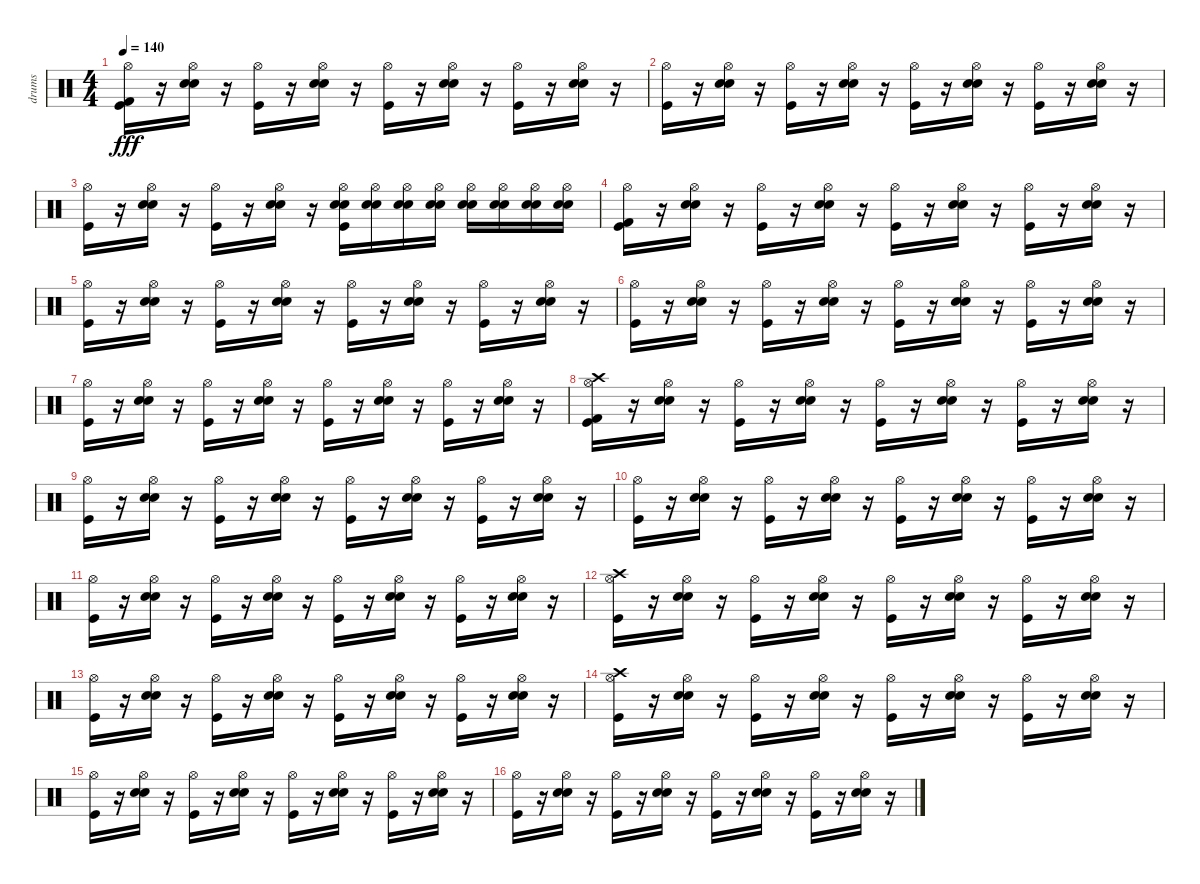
\track ("drums" "drums") {instrument percussion}
\staff {score}
\articulation defaults
\ts (4 4)
\tempo 140
\clef neutral
\ks c
("Kick (hit) 2" "Kick (hit)" "Hi-Hat (open)").16{dy fff} r.16 ("Hi-Hat (open)" "Snare (hit) 2" "Electric Snare (hit)").16 r.16 ("Hi-Hat (open)" "Kick (hit)").16 r.16 ("Hi-Hat (open)" "Snare (hit) 2" "Electric Snare (hit)").16 r.16 ("Hi-Hat (open)" "Kick (hit)").16 r.16 ("Hi-Hat (open)" "Snare (hit) 2" "Electric Snare (hit)").16 r.16 ("Hi-Hat (open)" "Kick (hit)").16 r.16 ("Hi-Hat (open)" "Snare (hit) 2" "Electric Snare (hit)").16 r.16 |
("Hi-Hat (open)" "Kick (hit)").16 r.16 ("Hi-Hat (open)" "Snare (hit) 2" "Electric Snare (hit)").16 r.16 ("Hi-Hat (open)" "Kick (hit)").16 r.16 ("Hi-Hat (open)" "Snare (hit) 2" "Electric Snare (hit)").16 r.16 ("Hi-Hat (open)" "Kick (hit)").16 r.16 ("Hi-Hat (open)" "Snare (hit) 2" "Electric Snare (hit)").16 r.16 ("Hi-Hat (open)" "Kick (hit)").16 r.16 ("Hi-Hat (open)" "Snare (hit) 2" "Electric Snare (hit)").16 r.16 |
("Kick (hit)" "Hi-Hat (open)").16 r.16 ("Hi-Hat (open)" "Snare (hit) 2" "Electric Snare (hit)").16 r.16 ("Hi-Hat (open)" "Kick (hit)").16 r.16 ("Hi-Hat (open)" "Snare (hit) 2" "Electric Snare (hit)").16 r.16 ("Electric Snare (hit)" "Hi-Hat (open)" "Snare (hit) 2" "Kick (hit)").16 ("Snare (hit) 2" "Hi-Hat (open)" "Electric Snare (hit)").16 ("Snare (hit) 2" "Hi-Hat (open)" "Electric Snare (hit)").16 ("Snare (hit) 2" "Hi-Hat (open)" "Electric Snare (hit)").16 ("Snare (hit) 2" "Hi-Hat (open)" "Electric Snare (hit)").16 ("Snare (hit) 2" "Hi-Hat (open)" "Electric Snare (hit)").16 ("Snare (hit) 2" "Hi-Hat (open)" "Electric Snare (hit)").16 ("Snare (hit) 2" "Hi-Hat (open)" "Electric Snare (hit)").16 |
("Hi-Hat (open)" "Kick (hit)" "Kick (hit) 2").16 r.16 ("Hi-Hat (open)" "Snare (hit) 2" "Electric Snare (hit)").16 r.16 ("Hi-Hat (open)" "Kick (hit)").16 r.16 ("Hi-Hat (open)" "Snare (hit) 2" "Electric Snare (hit)").16 r.16 ("Hi-Hat (open)" "Kick (hit)").16 r.16 ("Hi-Hat (open)" "Snare (hit) 2" "Electric Snare (hit)").16 r.16 ("Hi-Hat (open)" "Kick (hit)").16 r.16 ("Hi-Hat (open)" "Snare (hit) 2" "Electric Snare (hit)").16 r.16 |
("Hi-Hat (open)" "Kick (hit)").16 r.16 ("Hi-Hat (open)" "Snare (hit) 2" "Electric Snare (hit)").16 r.16 ("Hi-Hat (open)" "Kick (hit)").16 r.16 ("Hi-Hat (open)" "Snare (hit) 2" "Electric Snare (hit)").16 r.16 ("Hi-Hat (open)" "Kick (hit)").16 r.16 ("Hi-Hat (open)" "Snare (hit) 2" "Electric Snare (hit)").16 r.16 ("Hi-Hat (open)" "Kick (hit)").16 r.16 ("Hi-Hat (open)" "Snare (hit) 2" "Electric Snare (hit)").16 r.16 |
("Kick (hit)" "Hi-Hat (open)").16 r.16 ("Hi-Hat (open)" "Snare (hit) 2" "Electric Snare (hit)").16 r.16 ("Hi-Hat (open)" "Kick (hit)").16 r.16 ("Hi-Hat (open)" "Snare (hit) 2" "Electric Snare (hit)").16 r.16 ("Hi-Hat (open)" "Kick (hit)").16 r.16 ("Hi-Hat (open)" "Snare (hit) 2" "Electric Snare (hit)").16 r.16 ("Hi-Hat (open)" "Kick (hit)").16 r.16 ("Hi-Hat (open)" "Snare (hit) 2" "Electric Snare (hit)").16 r.16 |
("Kick (hit)" "Hi-Hat (open)").16 r.16 ("Hi-Hat (open)" "Snare (hit) 2" "Electric Snare (hit)").16 r.16 ("Hi-Hat (open)" "Kick (hit)").16 r.16 ("Hi-Hat (open)" "Snare (hit) 2" "Electric Snare (hit)").16 r.16 ("Hi-Hat (open)" "Kick (hit)").16 r.16 ("Hi-Hat (open)" "Snare (hit) 2" "Electric Snare (hit)").16 r.16 ("Hi-Hat (open)" "Kick (hit)").16 r.16 ("Hi-Hat (open)" "Snare (hit) 2" "Electric Snare (hit)").16 r.16 |
("Kick (hit)" "Hi-Hat (open)" "Crash high (hit)" "Kick (hit) 2").16 r.16 ("Hi-Hat (open)" "Snare (hit) 2" "Electric Snare (hit)").16 r.16 ("Hi-Hat (open)" "Kick (hit)").16 r.16 ("Hi-Hat (open)" "Snare (hit) 2" "Electric Snare (hit)").16 r.16 ("Hi-Hat (open)" "Kick (hit)").16 r.16 ("Hi-Hat (open)" "Snare (hit) 2" "Electric Snare (hit)").16 r.16 ("Hi-Hat (open)" "Kick (hit)").16 r.16 ("Hi-Hat (open)" "Snare (hit) 2" "Electric Snare (hit)").16 r.16 |
("Kick (hit)" "Hi-Hat (open)").16 r.16 ("Hi-Hat (open)" "Snare (hit) 2" "Electric Snare (hit)").16 r.16 ("Hi-Hat (open)" "Kick (hit)").16 r.16 ("Hi-Hat (open)" "Snare (hit) 2" "Electric Snare (hit)").16 r.16 ("Hi-Hat (open)" "Kick (hit)").16 r.16 ("Hi-Hat (open)" "Snare (hit) 2" "Electric Snare (hit)").16 r.16 ("Hi-Hat (open)" "Kick (hit)").16 r.16 ("Hi-Hat (open)" "Snare (hit) 2" "Electric Snare (hit)").16 r.16 |
("Kick (hit)" "Hi-Hat (open)").16 r.16 ("Hi-Hat (open)" "Snare (hit) 2" "Electric Snare (hit)").16 r.16 ("Hi-Hat (open)" "Kick (hit)").16 r.16 ("Hi-Hat (open)" "Snare (hit) 2" "Electric Snare (hit)").16 r.16 ("Hi-Hat (open)" "Kick (hit)").16 r.16 ("Hi-Hat (open)" "Snare (hit) 2" "Electric Snare (hit)").16 r.16 ("Hi-Hat (open)" "Kick (hit)").16 r.16 ("Hi-Hat (open)" "Snare (hit) 2" "Electric Snare (hit)").16 r.16 |
("Kick (hit)" "Hi-Hat (open)").16 r.16 ("Hi-Hat (open)" "Snare (hit) 2" "Electric Snare (hit)").16 r.16 ("Hi-Hat (open)" "Kick (hit)").16 r.16 ("Hi-Hat (open)" "Snare (hit) 2" "Electric Snare (hit)").16 r.16 ("Hi-Hat (open)" "Kick (hit)").16 r.16 ("Hi-Hat (open)" "Snare (hit) 2" "Electric Snare (hit)").16 r.16 ("Hi-Hat (open)" "Kick (hit)").16 r.16 ("Hi-Hat (open)" "Snare (hit) 2" "Electric Snare (hit)").16 r.16 |
("Kick (hit)" "Hi-Hat (open)" "Crash high (hit)").16 r.16 ("Hi-Hat (open)" "Snare (hit) 2" "Electric Snare (hit)").16 r.16 ("Hi-Hat (open)" "Kick (hit)").16 r.16 ("Hi-Hat (open)" "Snare (hit) 2" "Electric Snare (hit)").16 r.16 ("Hi-Hat (open)" "Kick (hit)").16 r.16 ("Hi-Hat (open)" "Snare (hit) 2" "Electric Snare (hit)").16 r.16 ("Hi-Hat (open)" "Kick (hit)").16 r.16 ("Hi-Hat (open)" "Snare (hit) 2" "Electric Snare (hit)").16 r.16 |
("Kick (hit)" "Hi-Hat (open)").16 r.16 ("Hi-Hat (open)" "Snare (hit) 2" "Electric Snare (hit)").16 r.16 ("Hi-Hat (open)" "Kick (hit)").16 r.16 ("Hi-Hat (open)" "Snare (hit) 2" "Electric Snare (hit)").16 r.16 ("Hi-Hat (open)" "Kick (hit)").16 r.16 ("Hi-Hat (open)" "Snare (hit) 2" "Electric Snare (hit)").16 r.16 ("Hi-Hat (open)" "Kick (hit)").16 r.16 ("Hi-Hat (open)" "Snare (hit) 2" "Electric Snare (hit)").16 r.16 |
("Crash high (hit)" "Kick (hit)" "Hi-Hat (open)").16 r.16 ("Hi-Hat (open)" "Snare (hit) 2" "Electric Snare (hit)").16 r.16 ("Hi-Hat (open)" "Kick (hit)").16 r.16 ("Hi-Hat (open)" "Snare (hit) 2" "Electric Snare (hit)").16 r.16 ("Hi-Hat (open)" "Kick (hit)").16 r.16 ("Hi-Hat (open)" "Snare (hit) 2" "Electric Snare (hit)").16 r.16 ("Hi-Hat (open)" "Kick (hit)").16 r.16 ("Hi-Hat (open)" "Snare (hit) 2" "Electric Snare (hit)").16 r.16 |
("Kick (hit)" "Hi-Hat (open)").16 r.16 ("Hi-Hat (open)" "Snare (hit) 2" "Electric Snare (hit)").16 r.16 ("Hi-Hat (open)" "Kick (hit)").16 r.16 ("Hi-Hat (open)" "Snare (hit) 2" "Electric Snare (hit)").16 r.16 ("Hi-Hat (open)" "Kick (hit)").16 r.16 ("Hi-Hat (open)" "Snare (hit) 2" "Electric Snare (hit)").16 r.16 ("Hi-Hat (open)" "Kick (hit)").16 r.16 ("Hi-Hat (open)" "Snare (hit) 2" "Electric Snare (hit)").16 r.16 |
("Hi-Hat (open)" "Kick (hit)").16 r.16 ("Hi-Hat (open)" "Snare (hit) 2" "Electric Snare (hit)").16 r.16 ("Hi-Hat (open)" "Kick (hit)").16 r.16 ("Hi-Hat (open)" "Snare (hit) 2" "Electric Snare (hit)").16 r.16 ("Hi-Hat (open)" "Kick (hit)").16 r.16 ("Hi-Hat (open)" "Snare (hit) 2" "Electric Snare (hit)").16 r.16 ("Hi-Hat (open)" "Kick (hit)").16 r.16 ("Hi-Hat (open)" "Snare (hit) 2" "Electric Snare (hit)").16 r.16
